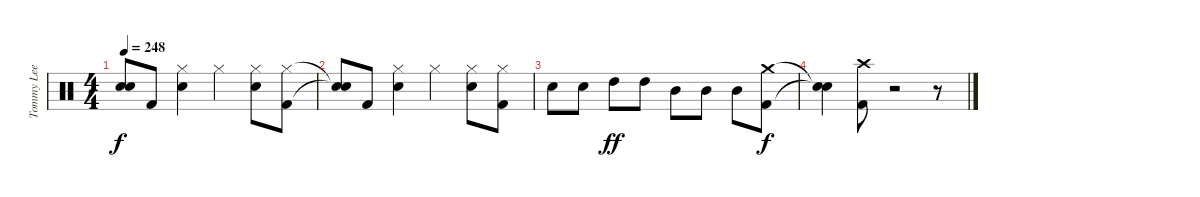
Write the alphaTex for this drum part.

\track ("Tommy Lee" "Tommy Lee") {instrument percussion}
\staff {score}
\articulation defaults
\ts (4 4)
\tempo 248
\clef neutral
\ks c
("Snare (hit)"{t} "Snare (hit)"{t}).8{dy f} "Kick (hit) 2".8 ("Hi-Hat (closed)" "Electric Snare (hit)").4 "Hi-Hat (closed)".4 ("Hi-Hat (closed)" "Electric Snare (hit)").8 ("Hi-Hat (closed)" "Kick (hit) 2").8 |
("Snare (hit)"{t} "Snare (hit)"{t}).8 "Kick (hit) 2".8 ("Hi-Hat (closed)" "Electric Snare (hit)").4 "Hi-Hat (closed)".4 ("Hi-Hat (closed)" "Electric Snare (hit)").8 ("Hi-Hat (closed)" "Kick (hit) 2").8 |
"Electric Snare (hit)".8 "Electric Snare (hit)".8 "High Tom (hit)".8{dy ff} "High Tom (hit)".8 "Mid Tom (hit)".8 "Mid Tom (hit)".8 "Mid Tom (hit)".8 ("Crash medium (hit)" "Kick (hit) 2").8{dy f} |
("Snare (hit)"{t} "Snare (hit)"{t}).4 ("Crash high (hit)" "Kick (hit) 2").8 r.2 r.8
